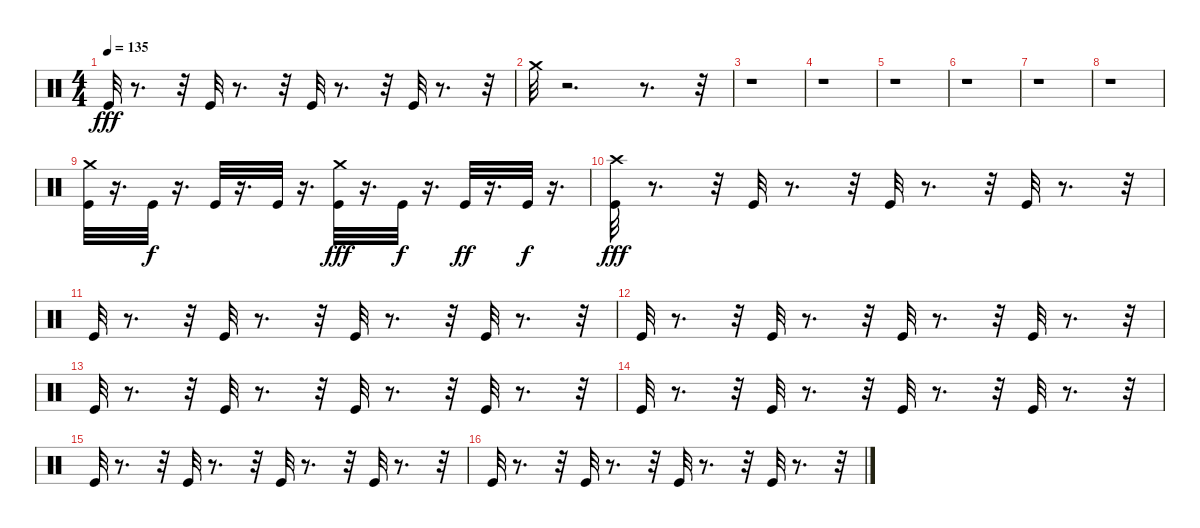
\track "" {instrument percussion}
\staff {score}
\articulation defaults
\ts (4 4)
\tempo 135
\clef neutral
\ks c "Kick (hit)".32{dy fff}
r.8{d} r.32 "Kick (hit)".32 r.8{d} r.32 "Kick (hit)".32 r.8{d} r.32 "Kick (hit)".32 r.8{d} r.32 |
"Crash medium (hit)".32 r.2{d} r.8{d} r.32 |
r.1 |
r.1 |
r.1 |
r.1 |
r.1 |
r.1 |
("Crash medium (hit)" "Kick (hit)").32 r.16{d} "Kick (hit)".32{dy f} r.16{d} "Kick (hit)".32 r.16{d} "Kick (hit)".32 r.16{d} ("Crash medium (hit)" "Kick (hit)").32{dy fff} r.16{d} "Kick (hit)".32{dy f} r.16{d} "Kick (hit)".32{dy ff} r.16{d} "Kick (hit)".32{dy f} r.16{d} |
("Kick (hit)" "Crash high (hit)").32{dy fff} r.8{d} r.32 "Kick (hit)".32 r.8{d} r.32 "Kick (hit)".32 r.8{d} r.32 "Kick (hit)".32 r.8{d} r.32 |
"Kick (hit)".32 r.8{d} r.32 "Kick (hit)".32 r.8{d} r.32 "Kick (hit)".32 r.8{d} r.32 "Kick (hit)".32 r.8{d} r.32 |
"Kick (hit)".32 r.8{d} r.32 "Kick (hit)".32 r.8{d} r.32 "Kick (hit)".32 r.8{d} r.32 "Kick (hit)".32 r.8{d} r.32 |
"Kick (hit)".32 r.8{d} r.32 "Kick (hit)".32 r.8{d} r.32 "Kick (hit)".32 r.8{d} r.32 "Kick (hit)".32 r.8{d} r.32 |
"Kick (hit)".32 r.8{d} r.32 "Kick (hit)".32 r.8{d} r.32 "Kick (hit)".32 r.8{d} r.32 "Kick (hit)".32 r.8{d} r.32 |
"Kick (hit)".32 r.8{d} r.32 "Kick (hit)".32 r.8{d} r.32 "Kick (hit)".32 r.8{d} r.32 "Kick (hit)".32 r.8{d} r.32 |
"Kick (hit)".32 r.8{d} r.32 "Kick (hit)".32 r.8{d} r.32 "Kick (hit)".32 r.8{d} r.32 "Kick (hit)".32 r.8{d} r.32
